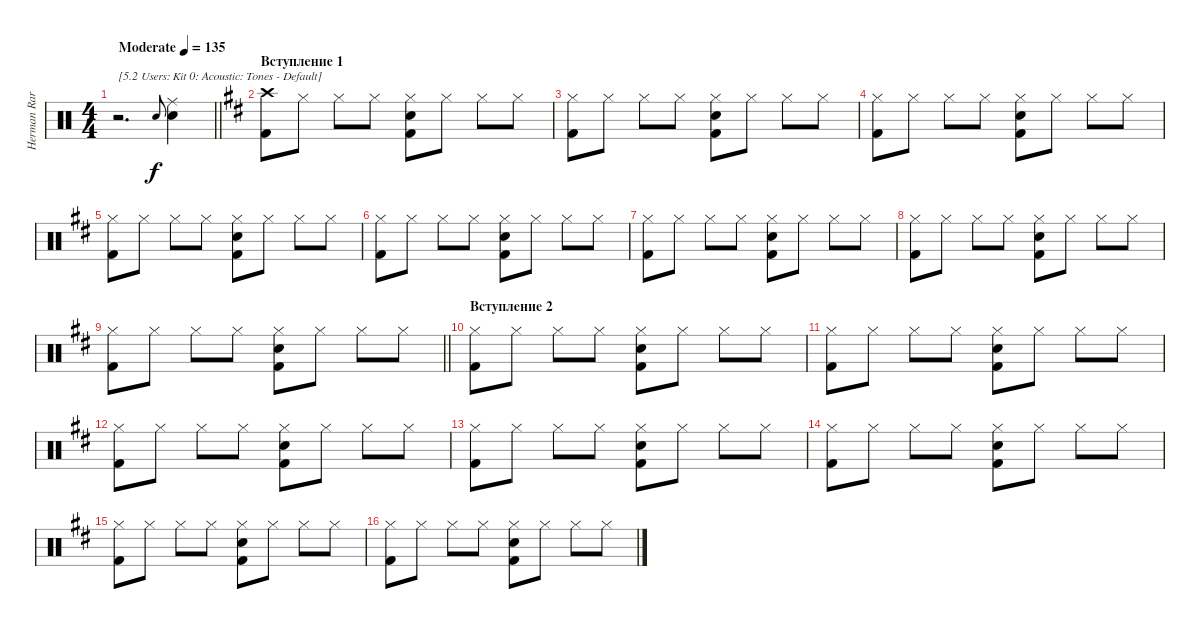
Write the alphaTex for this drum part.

\track ("Herman Rarebell" "Herman Rar") {instrument percussion}
\staff {score}
\articulation defaults
\ts (4 4)
\tempo (135 "Moderate")
\clef neutral
\barLineRight lightlight
\ks c
r.2{d txt "[5.2 Users: Kit 0: Acoustic: Tones - Default]" dy f} "Electric Snare (hit)".8{gr onbeat} ("Ride (middle)" "Snare (hit) 2").4 |
\section ("" "Вступление 1")
\ks d
("Crash high (hit)" "Kick (hit) 2").8 "Hi-Hat (closed)".8 "Hi-Hat (closed)".8 "Hi-Hat (closed)".8 ("Hi-Hat (closed)" "Snare (hit) 2" "Kick (hit) 2").8 "Hi-Hat (closed)".8 "Hi-Hat (closed)".8 "Hi-Hat (closed)".8 |
("Hi-Hat (closed)" "Kick (hit) 2").8 "Hi-Hat (closed)".8 "Hi-Hat (closed)".8 "Hi-Hat (closed)".8 ("Hi-Hat (closed)" "Snare (hit) 2" "Kick (hit) 2").8 "Hi-Hat (closed)".8 "Hi-Hat (closed)".8 "Hi-Hat (closed)".8 |
("Hi-Hat (closed)" "Kick (hit) 2").8 "Hi-Hat (closed)".8 "Hi-Hat (closed)".8 "Hi-Hat (closed)".8 ("Hi-Hat (closed)" "Snare (hit) 2" "Kick (hit) 2").8 "Hi-Hat (closed)".8 "Hi-Hat (closed)".8 "Hi-Hat (closed)".8 |
("Hi-Hat (closed)" "Kick (hit) 2").8 "Hi-Hat (closed)".8 "Hi-Hat (closed)".8 "Hi-Hat (closed)".8 ("Hi-Hat (closed)" "Snare (hit) 2" "Kick (hit) 2").8 "Hi-Hat (closed)".8 "Hi-Hat (closed)".8 "Hi-Hat (closed)".8 |
("Hi-Hat (closed)" "Kick (hit) 2").8 "Hi-Hat (closed)".8 "Hi-Hat (closed)".8 "Hi-Hat (closed)".8 ("Hi-Hat (closed)" "Snare (hit) 2" "Kick (hit) 2").8 "Hi-Hat (closed)".8 "Hi-Hat (closed)".8 "Hi-Hat (closed)".8 |
("Hi-Hat (closed)" "Kick (hit) 2").8 "Hi-Hat (closed)".8 "Hi-Hat (closed)".8 "Hi-Hat (closed)".8 ("Hi-Hat (closed)" "Snare (hit) 2" "Kick (hit) 2").8 "Hi-Hat (closed)".8 "Hi-Hat (closed)".8 "Hi-Hat (closed)".8 |
("Hi-Hat (closed)" "Kick (hit) 2").8 "Hi-Hat (closed)".8 "Hi-Hat (closed)".8 "Hi-Hat (closed)".8 ("Hi-Hat (closed)" "Snare (hit) 2" "Kick (hit) 2").8 "Hi-Hat (closed)".8 "Hi-Hat (closed)".8 "Hi-Hat (closed)".8 |
\barLineRight lightlight
("Hi-Hat (closed)" "Kick (hit) 2").8 "Hi-Hat (closed)".8 "Hi-Hat (closed)".8 "Hi-Hat (closed)".8 ("Hi-Hat (closed)" "Snare (hit) 2" "Kick (hit) 2").8 "Hi-Hat (closed)".8 "Hi-Hat (closed)".8 "Hi-Hat (closed)".8 |
\section ("" "Вступление 2")
("Hi-Hat (closed)" "Kick (hit) 2").8 "Hi-Hat (closed)".8 "Hi-Hat (closed)".8 "Hi-Hat (closed)".8 ("Hi-Hat (closed)" "Snare (hit) 2" "Kick (hit) 2").8 "Hi-Hat (closed)".8 "Hi-Hat (closed)".8 "Hi-Hat (closed)".8 |
("Hi-Hat (closed)" "Kick (hit) 2").8 "Hi-Hat (closed)".8 "Hi-Hat (closed)".8 "Hi-Hat (closed)".8 ("Hi-Hat (closed)" "Snare (hit) 2" "Kick (hit) 2").8 "Hi-Hat (closed)".8 "Hi-Hat (closed)".8 "Hi-Hat (closed)".8 |
("Hi-Hat (closed)" "Kick (hit) 2").8 "Hi-Hat (closed)".8 "Hi-Hat (closed)".8 "Hi-Hat (closed)".8 ("Hi-Hat (closed)" "Snare (hit) 2" "Kick (hit) 2").8 "Hi-Hat (closed)".8 "Hi-Hat (closed)".8 "Hi-Hat (closed)".8 |
("Hi-Hat (closed)" "Kick (hit) 2").8 "Hi-Hat (closed)".8 "Hi-Hat (closed)".8 "Hi-Hat (closed)".8 ("Hi-Hat (closed)" "Snare (hit) 2" "Kick (hit) 2").8 "Hi-Hat (closed)".8 "Hi-Hat (closed)".8 "Hi-Hat (closed)".8 |
("Hi-Hat (closed)" "Kick (hit) 2").8 "Hi-Hat (closed)".8 "Hi-Hat (closed)".8 "Hi-Hat (closed)".8 ("Hi-Hat (closed)" "Snare (hit) 2" "Kick (hit) 2").8 "Hi-Hat (closed)".8 "Hi-Hat (closed)".8 "Hi-Hat (closed)".8 |
("Hi-Hat (closed)" "Kick (hit) 2").8 "Hi-Hat (closed)".8 "Hi-Hat (closed)".8 "Hi-Hat (closed)".8 ("Hi-Hat (closed)" "Snare (hit) 2" "Kick (hit) 2").8 "Hi-Hat (closed)".8 "Hi-Hat (closed)".8 "Hi-Hat (closed)".8 |
("Hi-Hat (closed)" "Kick (hit) 2").8 "Hi-Hat (closed)".8 "Hi-Hat (closed)".8 "Hi-Hat (closed)".8 ("Hi-Hat (closed)" "Snare (hit) 2" "Kick (hit) 2").8 "Hi-Hat (closed)".8 "Hi-Hat (closed)".8 "Hi-Hat (closed)".8
